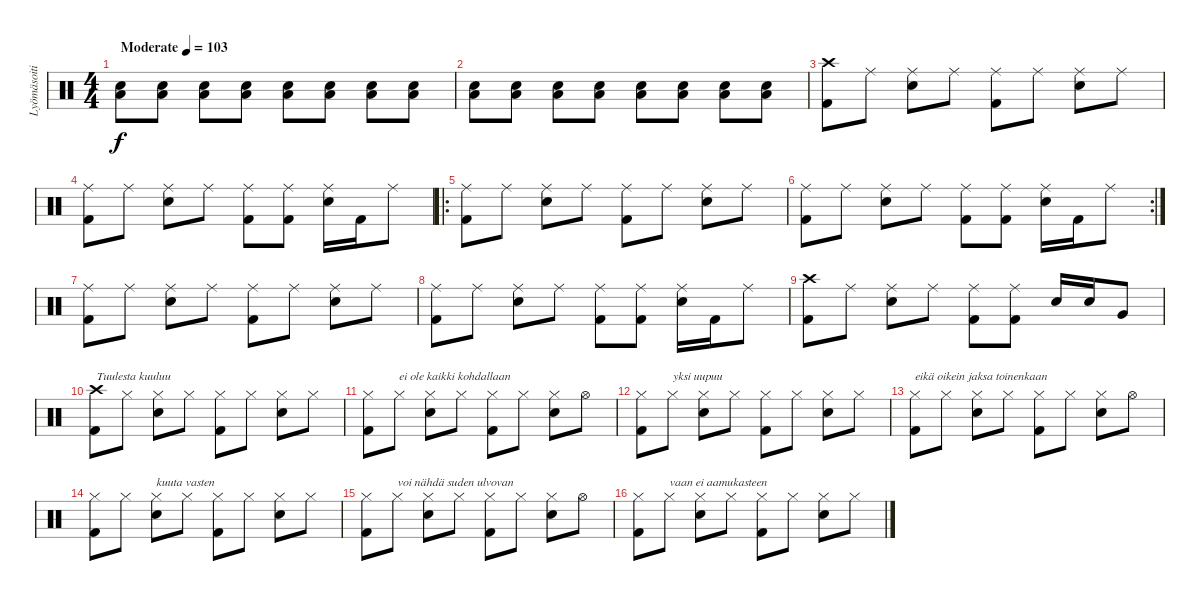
\track ("Lyömäsoitin" "Lyömäsoiti") {instrument percussion}
\staff {score}
\articulation defaults
\ts (4 4)
\tempo (103 "Moderate")
\clef neutral
\ks c
("Snare (hit) 2" "Low Floor Tom (hit)").8{dy f} ("Snare (hit) 2" "Low Floor Tom (hit)").8 ("Snare (hit) 2" "Low Floor Tom (hit)").8 ("Snare (hit) 2" "Low Floor Tom (hit)").8 ("Snare (hit) 2" "Low Floor Tom (hit)").8 ("Snare (hit) 2" "Low Floor Tom (hit)").8 ("Snare (hit) 2" "Low Floor Tom (hit)").8 ("Snare (hit) 2" "Low Floor Tom (hit)").8 |
("Snare (hit) 2" "Low Floor Tom (hit)").8 ("Snare (hit) 2" "Low Floor Tom (hit)").8 ("Snare (hit) 2" "Low Floor Tom (hit)").8 ("Snare (hit) 2" "Low Floor Tom (hit)").8 ("Snare (hit) 2" "Low Floor Tom (hit)").8 ("Snare (hit) 2" "Low Floor Tom (hit)").8 ("Snare (hit) 2" "Low Floor Tom (hit)").8 ("Snare (hit) 2" "Low Floor Tom (hit)").8 |
("Crash high (hit)" "Kick (hit) 2").8 "Ride (middle)".8 ("Ride (middle)" "Snare (hit) 2").8 "Ride (middle)".8 ("Ride (middle)" "Kick (hit) 2").8 "Ride (middle)".8 ("Ride (middle)" "Snare (hit) 2").8 "Ride (middle)".8 |
("Ride (middle)" "Kick (hit) 2").8 "Ride (middle)".8 ("Ride (middle)" "Snare (hit) 2").8 "Ride (middle)".8 ("Ride (middle)" "Kick (hit) 2").8 ("Ride (middle)" "Kick (hit) 2").8 ("Ride (middle)" "Snare (hit) 2").16 "Kick (hit) 2".16 "Ride (middle)".8 |
\ro
("Ride (middle)" "Kick (hit) 2").8 "Ride (middle)".8 ("Ride (middle)" "Snare (hit) 2").8 "Ride (middle)".8 ("Ride (middle)" "Kick (hit) 2").8 "Ride (middle)".8 ("Ride (middle)" "Snare (hit) 2").8 "Ride (middle)".8 |
\rc 2
("Ride (middle)" "Kick (hit) 2").8 "Ride (middle)".8 ("Ride (middle)" "Snare (hit) 2").8 "Ride (middle)".8 ("Ride (middle)" "Kick (hit) 2").8 ("Ride (middle)" "Kick (hit) 2").8 ("Ride (middle)" "Snare (hit) 2").16 "Kick (hit) 2".16 "Ride (middle)".8 |
("Ride (middle)" "Kick (hit) 2").8 "Ride (middle)".8 ("Ride (middle)" "Snare (hit) 2").8 "Ride (middle)".8 ("Ride (middle)" "Kick (hit) 2").8 "Ride (middle)".8 ("Ride (middle)" "Snare (hit) 2").8 "Ride (middle)".8 |
("Ride (middle)" "Kick (hit) 2").8 "Ride (middle)".8 ("Ride (middle)" "Snare (hit) 2").8 "Ride (middle)".8 ("Ride (middle)" "Kick (hit) 2").8 ("Ride (middle)" "Kick (hit) 2").8 ("Ride (middle)" "Snare (hit) 2").16 "Kick (hit) 2".16 "Ride (middle)".8 |
("Crash high (hit)" "Kick (hit) 2").8 "Ride (middle)".8 ("Ride (middle)" "Snare (hit) 2").8 "Ride (middle)".8 ("Ride (middle)" "Kick (hit) 2").8 ("Ride (middle)" "Kick (hit) 2").8 "Snare (hit) 2".16 "Snare (hit) 2".16 "Very Low Tom (hit)".8 |
("Crash high (hit)" "Kick (hit) 2").8{txt "Tuulesta kuuluu"} "Hi-Hat (closed)".8 ("Hi-Hat (closed)" "Snare (hit) 2").8 "Hi-Hat (closed)".8 ("Hi-Hat (closed)" "Kick (hit) 2").8 "Hi-Hat (closed)".8 ("Hi-Hat (closed)" "Snare (hit) 2").8 "Hi-Hat (closed)".8 |
("Hi-Hat (closed)" "Kick (hit) 2").8 "Hi-Hat (closed)".8{txt "ei ole kaikki kohdallaan"} ("Hi-Hat (closed)" "Snare (hit) 2").8 "Hi-Hat (closed)".8 ("Hi-Hat (closed)" "Kick (hit) 2").8 "Hi-Hat (closed)".8 ("Hi-Hat (closed)" "Snare (hit) 2").8 "Hi-Hat (open)".8 |
("Hi-Hat (closed)" "Kick (hit) 2").8 "Hi-Hat (closed)".8{txt "yksi uupuu"} ("Hi-Hat (closed)" "Snare (hit) 2").8 "Hi-Hat (closed)".8 ("Hi-Hat (closed)" "Kick (hit) 2").8 "Hi-Hat (closed)".8 ("Hi-Hat (closed)" "Snare (hit) 2").8 "Hi-Hat (closed)".8 |
("Hi-Hat (closed)" "Kick (hit) 2").8{txt "eikä oikein jaksa toinenkaan"} "Hi-Hat (closed)".8 ("Hi-Hat (closed)" "Snare (hit) 2").8 "Hi-Hat (closed)".8 ("Hi-Hat (closed)" "Kick (hit) 2").8 "Hi-Hat (closed)".8 ("Hi-Hat (closed)" "Snare (hit) 2").8 "Hi-Hat (open)".8 |
("Hi-Hat (closed)" "Kick (hit) 2").8 "Hi-Hat (closed)".8 ("Hi-Hat (closed)" "Snare (hit) 2").8{txt "kuuta vasten"} "Hi-Hat (closed)".8 ("Hi-Hat (closed)" "Kick (hit) 2").8 "Hi-Hat (closed)".8 ("Hi-Hat (closed)" "Snare (hit) 2").8 "Hi-Hat (closed)".8 |
("Hi-Hat (closed)" "Kick (hit) 2").8 "Hi-Hat (closed)".8{txt "voi nähdä suden ulvovan"} ("Hi-Hat (closed)" "Snare (hit) 2").8 "Hi-Hat (closed)".8 ("Hi-Hat (closed)" "Kick (hit) 2").8 "Hi-Hat (closed)".8 ("Hi-Hat (closed)" "Snare (hit) 2").8 "Hi-Hat (open)".8 |
("Hi-Hat (closed)" "Kick (hit) 2").8 "Hi-Hat (closed)".8{txt "vaan ei aamukasteen"} ("Hi-Hat (closed)" "Snare (hit) 2").8 "Hi-Hat (closed)".8 ("Hi-Hat (closed)" "Kick (hit) 2").8 "Hi-Hat (closed)".8 ("Hi-Hat (closed)" "Snare (hit) 2").8 "Hi-Hat (closed)".8
